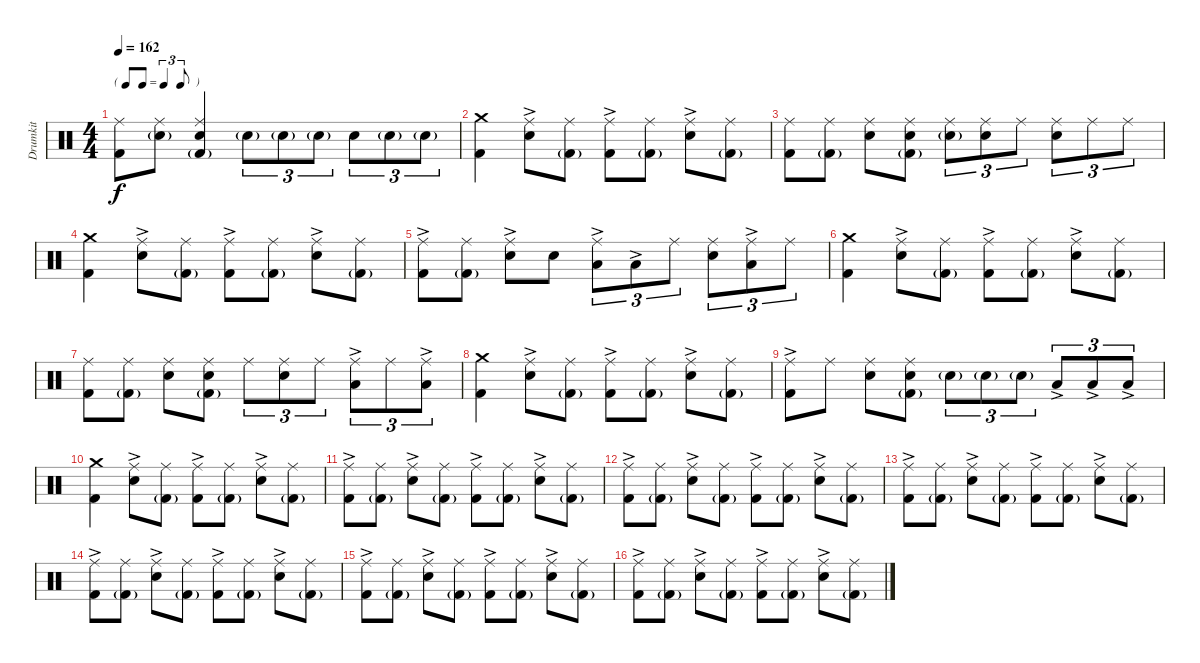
\track ("Drumkit" "Drumkit") {instrument percussion}
\staff {score}
\articulation defaults
\ts (4 4)
\tf triplet8th
\tempo 162
\clef neutral
\ks c
("Kick (hit) 2" "Ride (middle)").8{dy f} ("Ride (middle)" "Snare (hit) 2"{g}).8 ("Snare (hit) 2" "Ride (middle)" "Kick (hit) 2"{g}).4 "Snare (hit) 2"{g}.8{tu (3 2)} "Snare (hit) 2"{g}.8{tu (3 2)} "Snare (hit) 2"{g}.8{tu (3 2)} "Snare (hit) 2".8{tu (3 2)} "Snare (hit) 2"{g}.8{tu (3 2)} "Snare (hit) 2"{g}.8{tu (3 2)} |
("Kick (hit) 2" "Crash medium (hit)").4 ("Snare (hit) 2" "Ride (middle)"{ac}).8 ("Kick (hit) 2"{g} "Ride (middle)").8 ("Kick (hit) 2" "Ride (middle)"{ac}).8 ("Kick (hit) 2"{g} "Ride (middle)").8 ("Snare (hit) 2" "Ride (middle)"{ac}).8 ("Kick (hit) 2"{g} "Ride (middle)").8 |
("Kick (hit) 2" "Ride (middle)").8 ("Kick (hit) 2"{g} "Ride (middle)").8 ("Snare (hit) 2" "Ride (middle)").8 ("Kick (hit) 2"{g} "Ride (middle)" "Snare (hit) 2").8 ("Ride (middle)" "Snare (hit) 2"{g}).8{tu (3 2)} ("Ride (middle)" "Snare (hit) 2").8{tu (3 2)} "Ride (middle)".8{tu (3 2)} ("Snare (hit) 2" "Ride (middle)").8{tu (3 2)} "Ride (middle)".8{tu (3 2)} "Ride (middle)".8{tu (3 2)} |
("Kick (hit) 2" "Crash medium (hit)").4 ("Snare (hit) 2" "Ride (middle)"{ac}).8 ("Kick (hit) 2"{g} "Ride (middle)").8 ("Kick (hit) 2" "Ride (middle)"{ac}).8 ("Kick (hit) 2"{g} "Ride (middle)").8 ("Snare (hit) 2" "Ride (middle)"{ac}).8 ("Kick (hit) 2"{g} "Ride (middle)").8 |
("Kick (hit) 2" "Ride (middle)"{ac}).8 ("Kick (hit) 2"{g} "Ride (middle)").8 ("Snare (hit) 2" "Ride (middle)"{ac}).8 "Snare (hit) 2".8 ("Ride (middle)" "Low Floor Tom (hit)"{ac}).8{tu (3 2)} "Low Floor Tom (hit)"{ac}.8{tu (3 2)} "Ride (middle)".8{tu (3 2)} ("Snare (hit) 2" "Ride (middle)").8{tu (3 2)} ("Ride (middle)" "Low Floor Tom (hit)"{ac}).8{tu (3 2)} "Ride (middle)".8{tu (3 2)} |
("Kick (hit) 2" "Crash medium (hit)").4 ("Snare (hit) 2" "Ride (middle)"{ac}).8 ("Kick (hit) 2"{g} "Ride (middle)").8 ("Kick (hit) 2" "Ride (middle)"{ac}).8 ("Kick (hit) 2"{g} "Ride (middle)").8 ("Snare (hit) 2" "Ride (middle)"{ac}).8 ("Kick (hit) 2"{g} "Ride (middle)").8 |
("Kick (hit) 2" "Ride (middle)").8 ("Kick (hit) 2"{g} "Ride (middle)").8 ("Snare (hit) 2" "Ride (middle)").8 ("Kick (hit) 2"{g} "Ride (middle)" "Snare (hit) 2").8 "Ride (middle)".8{tu (3 2)} ("Ride (middle)" "Snare (hit) 2").8{tu (3 2)} "Ride (middle)".8{tu (3 2)} ("Ride (middle)" "Low Floor Tom (hit)"{ac}).8{tu (3 2)} "Ride (middle)".8{tu (3 2)} ("Ride (middle)" "Low Floor Tom (hit)"{ac}).8{tu (3 2)} |
("Kick (hit) 2" "Crash medium (hit)").4 ("Snare (hit) 2" "Ride (middle)"{ac}).8 ("Kick (hit) 2"{g} "Ride (middle)").8 ("Kick (hit) 2" "Ride (middle)"{ac}).8 ("Kick (hit) 2"{g} "Ride (middle)").8 ("Snare (hit) 2" "Ride (middle)"{ac}).8 ("Kick (hit) 2"{g} "Ride (middle)").8 |
("Kick (hit) 2" "Ride (middle)"{ac}).8 "Ride (middle)".8 ("Snare (hit) 2" "Ride (middle)").8 ("Kick (hit) 2"{g} "Ride (middle)" "Snare (hit) 2").8 "Snare (hit) 2"{g}.8{tu (3 2)} "Snare (hit) 2"{g}.8{tu (3 2)} "Snare (hit) 2"{g}.8{tu (3 2)} "Low Floor Tom (hit)"{ac}.8{tu (3 2)} "Low Floor Tom (hit)"{ac}.8{tu (3 2)} "Low Floor Tom (hit)"{ac}.8{tu (3 2)} |
("Kick (hit) 2" "Crash medium (hit)").4 ("Snare (hit) 2" "Ride (middle)"{ac}).8 ("Kick (hit) 2"{g} "Ride (middle)").8 ("Kick (hit) 2" "Ride (middle)"{ac}).8 ("Kick (hit) 2"{g} "Ride (middle)").8 ("Snare (hit) 2" "Ride (middle)"{ac}).8 ("Kick (hit) 2"{g} "Ride (middle)").8 |
("Kick (hit) 2" "Ride (middle)"{ac}).8 ("Kick (hit) 2"{g} "Ride (middle)").8 ("Snare (hit) 2" "Ride (middle)"{ac}).8 ("Kick (hit) 2"{g} "Ride (middle)").8 ("Kick (hit) 2" "Ride (middle)"{ac}).8 ("Kick (hit) 2"{g} "Ride (middle)").8 ("Snare (hit) 2" "Ride (middle)"{ac}).8 ("Kick (hit) 2"{g} "Ride (middle)").8 |
("Kick (hit) 2" "Ride (middle)"{ac}).8 ("Kick (hit) 2"{g} "Ride (middle)").8 ("Snare (hit) 2" "Ride (middle)"{ac}).8 ("Kick (hit) 2"{g} "Ride (middle)").8 ("Kick (hit) 2" "Ride (middle)"{ac}).8 ("Kick (hit) 2"{g} "Ride (middle)").8 ("Snare (hit) 2" "Ride (middle)"{ac}).8 ("Kick (hit) 2"{g} "Ride (middle)").8 |
("Kick (hit) 2" "Ride (middle)"{ac}).8 ("Kick (hit) 2"{g} "Ride (middle)").8 ("Snare (hit) 2" "Ride (middle)"{ac}).8 ("Kick (hit) 2"{g} "Ride (middle)").8 ("Kick (hit) 2" "Ride (middle)"{ac}).8 ("Kick (hit) 2"{g} "Ride (middle)").8 ("Snare (hit) 2" "Ride (middle)"{ac}).8 ("Kick (hit) 2"{g} "Ride (middle)").8 |
("Kick (hit) 2" "Ride (middle)"{ac}).8 ("Kick (hit) 2"{g} "Ride (middle)").8 ("Snare (hit) 2" "Ride (middle)"{ac}).8 ("Kick (hit) 2"{g} "Ride (middle)").8 ("Kick (hit) 2" "Ride (middle)"{ac}).8 ("Kick (hit) 2"{g} "Ride (middle)").8 ("Snare (hit) 2" "Ride (middle)"{ac}).8 ("Kick (hit) 2"{g} "Ride (middle)").8 |
("Kick (hit) 2" "Ride (middle)"{ac}).8 ("Kick (hit) 2"{g} "Ride (middle)").8 ("Snare (hit) 2" "Ride (middle)"{ac}).8 ("Kick (hit) 2"{g} "Ride (middle)").8 ("Kick (hit) 2" "Ride (middle)"{ac}).8 ("Kick (hit) 2"{g} "Ride (middle)").8 ("Snare (hit) 2" "Ride (middle)"{ac}).8 ("Kick (hit) 2"{g} "Ride (middle)").8 |
("Kick (hit) 2" "Ride (middle)"{ac}).8 ("Kick (hit) 2"{g} "Ride (middle)").8 ("Snare (hit) 2" "Ride (middle)"{ac}).8 ("Kick (hit) 2"{g} "Ride (middle)").8 ("Kick (hit) 2" "Ride (middle)"{ac}).8 ("Kick (hit) 2"{g} "Ride (middle)").8 ("Snare (hit) 2" "Ride (middle)"{ac}).8 ("Kick (hit) 2"{g} "Ride (middle)").8
